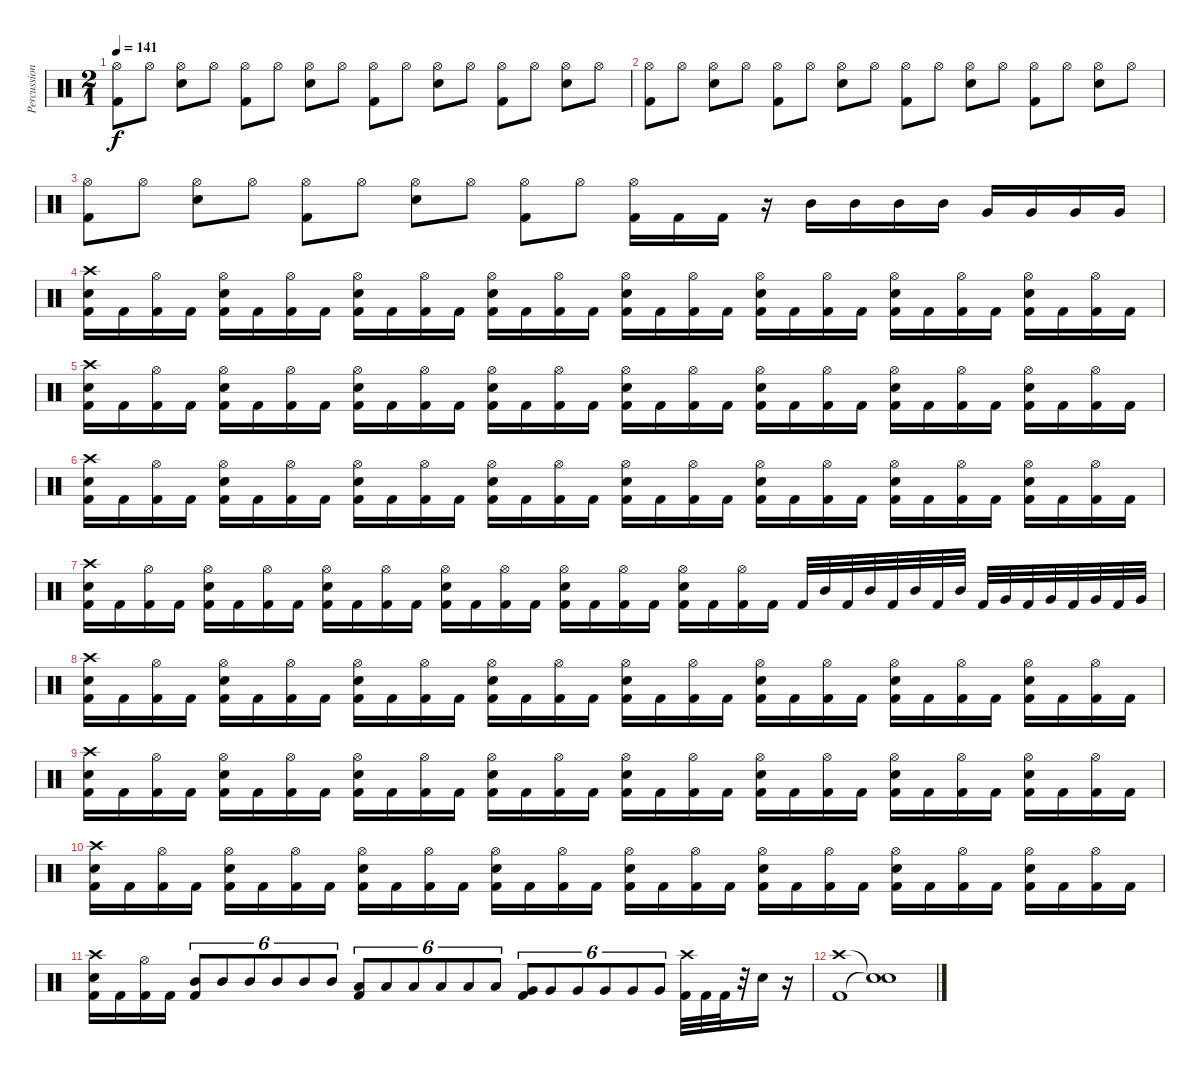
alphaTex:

\track ("Percussion" "Percussion") {instrument percussion}
\staff {score}
\articulation defaults
\ts (2 1)
\tempo 141
\clef neutral
\ks c
("Hi-Hat (open)" "Kick (hit) 2").8{dy f} "Hi-Hat (open)".8 ("Hi-Hat (open)" "Snare (hit) 2").8 "Hi-Hat (open)".8 ("Hi-Hat (open)" "Kick (hit) 2").8 "Hi-Hat (open)".8 ("Hi-Hat (open)" "Snare (hit) 2").8 "Hi-Hat (open)".8 ("Hi-Hat (open)" "Kick (hit) 2").8 "Hi-Hat (open)".8 ("Hi-Hat (open)" "Snare (hit) 2").8 "Hi-Hat (open)".8 ("Hi-Hat (open)" "Kick (hit) 2").8 "Hi-Hat (open)".8 ("Hi-Hat (open)" "Snare (hit) 2").8 "Hi-Hat (open)".8 |
("Hi-Hat (open)" "Kick (hit) 2").8 "Hi-Hat (open)".8 ("Hi-Hat (open)" "Snare (hit) 2").8 "Hi-Hat (open)".8 ("Hi-Hat (open)" "Kick (hit) 2").8 "Hi-Hat (open)".8 ("Hi-Hat (open)" "Snare (hit) 2").8 "Hi-Hat (open)".8 ("Hi-Hat (open)" "Kick (hit) 2").8 "Hi-Hat (open)".8 ("Hi-Hat (open)" "Snare (hit) 2").8 "Hi-Hat (open)".8 ("Hi-Hat (open)" "Kick (hit) 2").8 "Hi-Hat (open)".8 ("Hi-Hat (open)" "Snare (hit) 2").8 "Hi-Hat (open)".8 |
("Hi-Hat (open)" "Kick (hit) 2").8 "Hi-Hat (open)".8 ("Hi-Hat (open)" "Snare (hit) 2").8 "Hi-Hat (open)".8 ("Hi-Hat (open)" "Kick (hit) 2").8 "Hi-Hat (open)".8 ("Hi-Hat (open)" "Snare (hit) 2").8 "Hi-Hat (open)".8 ("Hi-Hat (open)" "Kick (hit) 2").8 "Hi-Hat (open)".8 ("Hi-Hat (open)" "Kick (hit) 2").16 "Kick (hit) 2".16 "Kick (hit) 2".16 r.16 "Mid Tom (hit)".16 "Mid Tom (hit)".16 "Mid Tom (hit)".16 "Mid Tom (hit)".16 "Very Low Tom (hit)".16 "Very Low Tom (hit)".16 "Very Low Tom (hit)".16 "Very Low Tom (hit)".16 |
("Crash high (hit)" "Snare (hit) 2" "Kick (hit) 2").16 "Kick (hit) 2".16 ("Hi-Hat (open)" "Kick (hit) 2").16 "Kick (hit) 2".16 ("Hi-Hat (open)" "Snare (hit) 2" "Kick (hit) 2").16 "Kick (hit) 2".16 ("Hi-Hat (open)" "Kick (hit) 2").16 "Kick (hit) 2".16 ("Hi-Hat (open)" "Snare (hit) 2" "Kick (hit) 2").16 "Kick (hit) 2".16 ("Hi-Hat (open)" "Kick (hit) 2").16 "Kick (hit) 2".16 ("Hi-Hat (open)" "Snare (hit) 2" "Kick (hit) 2").16 "Kick (hit) 2".16 ("Hi-Hat (open)" "Kick (hit) 2").16 "Kick (hit) 2".16 ("Hi-Hat (open)" "Snare (hit) 2" "Kick (hit) 2").16 "Kick (hit) 2".16 ("Hi-Hat (open)" "Kick (hit) 2").16 "Kick (hit) 2".16 ("Hi-Hat (open)" "Snare (hit) 2" "Kick (hit) 2").16 "Kick (hit) 2".16 ("Hi-Hat (open)" "Kick (hit) 2").16 "Kick (hit) 2".16 ("Hi-Hat (open)" "Snare (hit) 2" "Kick (hit) 2").16 "Kick (hit) 2".16 ("Hi-Hat (open)" "Kick (hit) 2").16 "Kick (hit) 2".16 ("Hi-Hat (open)" "Snare (hit) 2" "Kick (hit) 2").16 "Kick (hit) 2".16 ("Hi-Hat (open)" "Kick (hit) 2").16 "Kick (hit) 2".16 |
("Crash high (hit)" "Snare (hit) 2" "Kick (hit) 2").16 "Kick (hit) 2".16 ("Hi-Hat (open)" "Kick (hit) 2").16 "Kick (hit) 2".16 ("Hi-Hat (open)" "Snare (hit) 2" "Kick (hit) 2").16 "Kick (hit) 2".16 ("Hi-Hat (open)" "Kick (hit) 2").16 "Kick (hit) 2".16 ("Hi-Hat (open)" "Snare (hit) 2" "Kick (hit) 2").16 "Kick (hit) 2".16 ("Hi-Hat (open)" "Kick (hit) 2").16 "Kick (hit) 2".16 ("Hi-Hat (open)" "Snare (hit) 2" "Kick (hit) 2").16 "Kick (hit) 2".16 ("Hi-Hat (open)" "Kick (hit) 2").16 "Kick (hit) 2".16 ("Hi-Hat (open)" "Snare (hit) 2" "Kick (hit) 2").16 "Kick (hit) 2".16 ("Hi-Hat (open)" "Kick (hit) 2").16 "Kick (hit) 2".16 ("Hi-Hat (open)" "Snare (hit) 2" "Kick (hit) 2").16 "Kick (hit) 2".16 ("Hi-Hat (open)" "Kick (hit) 2").16 "Kick (hit) 2".16 ("Hi-Hat (open)" "Snare (hit) 2" "Kick (hit) 2").16 "Kick (hit) 2".16 ("Hi-Hat (open)" "Kick (hit) 2").16 "Kick (hit) 2".16 ("Hi-Hat (open)" "Snare (hit) 2" "Kick (hit) 2").16 "Kick (hit) 2".16 ("Hi-Hat (open)" "Kick (hit) 2").16 "Kick (hit) 2".16 |
("Crash high (hit)" "Snare (hit) 2" "Kick (hit) 2").16 "Kick (hit) 2".16 ("Hi-Hat (open)" "Kick (hit) 2").16 "Kick (hit) 2".16 ("Hi-Hat (open)" "Snare (hit) 2" "Kick (hit) 2").16 "Kick (hit) 2".16 ("Hi-Hat (open)" "Kick (hit) 2").16 "Kick (hit) 2".16 ("Hi-Hat (open)" "Snare (hit) 2" "Kick (hit) 2").16 "Kick (hit) 2".16 ("Hi-Hat (open)" "Kick (hit) 2").16 "Kick (hit) 2".16 ("Hi-Hat (open)" "Snare (hit) 2" "Kick (hit) 2").16 "Kick (hit) 2".16 ("Hi-Hat (open)" "Kick (hit) 2").16 "Kick (hit) 2".16 ("Hi-Hat (open)" "Snare (hit) 2" "Kick (hit) 2").16 "Kick (hit) 2".16 ("Hi-Hat (open)" "Kick (hit) 2").16 "Kick (hit) 2".16 ("Hi-Hat (open)" "Snare (hit) 2" "Kick (hit) 2").16 "Kick (hit) 2".16 ("Hi-Hat (open)" "Kick (hit) 2").16 "Kick (hit) 2".16 ("Hi-Hat (open)" "Snare (hit) 2" "Kick (hit) 2").16 "Kick (hit) 2".16 ("Hi-Hat (open)" "Kick (hit) 2").16 "Kick (hit) 2".16 ("Hi-Hat (open)" "Snare (hit) 2" "Kick (hit) 2").16 "Kick (hit) 2".16 ("Hi-Hat (open)" "Kick (hit) 2").16 "Kick (hit) 2".16 |
("Crash high (hit)" "Snare (hit) 2" "Kick (hit) 2").16 "Kick (hit) 2".16 ("Hi-Hat (open)" "Kick (hit) 2").16 "Kick (hit) 2".16 ("Hi-Hat (open)" "Snare (hit) 2" "Kick (hit) 2").16 "Kick (hit) 2".16 ("Hi-Hat (open)" "Kick (hit) 2").16 "Kick (hit) 2".16 ("Hi-Hat (open)" "Snare (hit) 2" "Kick (hit) 2").16 "Kick (hit) 2".16 ("Hi-Hat (open)" "Kick (hit) 2").16 "Kick (hit) 2".16 ("Hi-Hat (open)" "Snare (hit) 2" "Kick (hit) 2").16 "Kick (hit) 2".16 ("Hi-Hat (open)" "Kick (hit) 2").16 "Kick (hit) 2".16 ("Hi-Hat (open)" "Snare (hit) 2" "Kick (hit) 2").16 "Kick (hit) 2".16 ("Hi-Hat (open)" "Kick (hit) 2").16 "Kick (hit) 2".16 ("Hi-Hat (open)" "Snare (hit) 2" "Kick (hit) 2").16 "Kick (hit) 2".16 ("Hi-Hat (open)" "Kick (hit) 2").16 "Kick (hit) 2".16 "Kick (hit) 2".32 "Mid Tom (hit)".32 "Kick (hit) 2".32 "Mid Tom (hit)".32 "Kick (hit) 2".32 "Mid Tom (hit)".32 "Kick (hit) 2".32 "Mid Tom (hit)".32 "Kick (hit) 2".32 "Very Low Tom (hit)".32 "Kick (hit) 2".32 "Very Low Tom (hit)".32 "Kick (hit) 2".32 "Very Low Tom (hit)".32 "Kick (hit) 2".32 "Very Low Tom (hit)".32 |
("Crash high (hit)" "Snare (hit) 2" "Kick (hit) 2").16 "Kick (hit) 2".16 ("Hi-Hat (open)" "Kick (hit) 2").16 "Kick (hit) 2".16 ("Hi-Hat (open)" "Snare (hit) 2" "Kick (hit) 2").16 "Kick (hit) 2".16 ("Hi-Hat (open)" "Kick (hit) 2").16 "Kick (hit) 2".16 ("Hi-Hat (open)" "Snare (hit) 2" "Kick (hit) 2").16 "Kick (hit) 2".16 ("Hi-Hat (open)" "Kick (hit) 2").16 "Kick (hit) 2".16 ("Hi-Hat (open)" "Snare (hit) 2" "Kick (hit) 2").16 "Kick (hit) 2".16 ("Hi-Hat (open)" "Kick (hit) 2").16 "Kick (hit) 2".16 ("Hi-Hat (open)" "Snare (hit) 2" "Kick (hit) 2").16 "Kick (hit) 2".16 ("Hi-Hat (open)" "Kick (hit) 2").16 "Kick (hit) 2".16 ("Hi-Hat (open)" "Snare (hit) 2" "Kick (hit) 2").16 "Kick (hit) 2".16 ("Hi-Hat (open)" "Kick (hit) 2").16 "Kick (hit) 2".16 ("Hi-Hat (open)" "Snare (hit) 2" "Kick (hit) 2").16 "Kick (hit) 2".16 ("Hi-Hat (open)" "Kick (hit) 2").16 "Kick (hit) 2".16 ("Hi-Hat (open)" "Snare (hit) 2" "Kick (hit) 2").16 "Kick (hit) 2".16 ("Hi-Hat (open)" "Kick (hit) 2").16 "Kick (hit) 2".16 |
("Crash high (hit)" "Snare (hit) 2" "Kick (hit) 2").16 "Kick (hit) 2".16 ("Hi-Hat (open)" "Kick (hit) 2").16 "Kick (hit) 2".16 ("Hi-Hat (open)" "Snare (hit) 2" "Kick (hit) 2").16 "Kick (hit) 2".16 ("Hi-Hat (open)" "Kick (hit) 2").16 "Kick (hit) 2".16 ("Hi-Hat (open)" "Snare (hit) 2" "Kick (hit) 2").16 "Kick (hit) 2".16 ("Hi-Hat (open)" "Kick (hit) 2").16 "Kick (hit) 2".16 ("Hi-Hat (open)" "Snare (hit) 2" "Kick (hit) 2").16 "Kick (hit) 2".16 ("Hi-Hat (open)" "Kick (hit) 2").16 "Kick (hit) 2".16 ("Hi-Hat (open)" "Snare (hit) 2" "Kick (hit) 2").16 "Kick (hit) 2".16 ("Hi-Hat (open)" "Kick (hit) 2").16 "Kick (hit) 2".16 ("Hi-Hat (open)" "Snare (hit) 2" "Kick (hit) 2").16 "Kick (hit) 2".16 ("Hi-Hat (open)" "Kick (hit) 2").16 "Kick (hit) 2".16 ("Hi-Hat (open)" "Snare (hit) 2" "Kick (hit) 2").16 "Kick (hit) 2".16 ("Hi-Hat (open)" "Kick (hit) 2").16 "Kick (hit) 2".16 ("Hi-Hat (open)" "Snare (hit) 2" "Kick (hit) 2").16 "Kick (hit) 2".16 ("Hi-Hat (open)" "Kick (hit) 2").16 "Kick (hit) 2".16 |
("Crash high (hit)" "Snare (hit) 2" "Kick (hit) 2").16 "Kick (hit) 2".16 ("Hi-Hat (open)" "Kick (hit) 2").16 "Kick (hit) 2".16 ("Hi-Hat (open)" "Snare (hit) 2" "Kick (hit) 2").16 "Kick (hit) 2".16 ("Hi-Hat (open)" "Kick (hit) 2").16 "Kick (hit) 2".16 ("Hi-Hat (open)" "Snare (hit) 2" "Kick (hit) 2").16 "Kick (hit) 2".16 ("Hi-Hat (open)" "Kick (hit) 2").16 "Kick (hit) 2".16 ("Hi-Hat (open)" "Snare (hit) 2" "Kick (hit) 2").16 "Kick (hit) 2".16 ("Hi-Hat (open)" "Kick (hit) 2").16 "Kick (hit) 2".16 ("Hi-Hat (open)" "Snare (hit) 2" "Kick (hit) 2").16 "Kick (hit) 2".16 ("Hi-Hat (open)" "Kick (hit) 2").16 "Kick (hit) 2".16 ("Hi-Hat (open)" "Snare (hit) 2" "Kick (hit) 2").16 "Kick (hit) 2".16 ("Hi-Hat (open)" "Kick (hit) 2").16 "Kick (hit) 2".16 ("Hi-Hat (open)" "Snare (hit) 2" "Kick (hit) 2").16 "Kick (hit) 2".16 ("Hi-Hat (open)" "Kick (hit) 2").16 "Kick (hit) 2".16 ("Hi-Hat (open)" "Snare (hit) 2" "Kick (hit) 2").16 "Kick (hit) 2".16 ("Hi-Hat (open)" "Kick (hit) 2").16 "Kick (hit) 2".16 |
("Crash high (hit)" "Snare (hit) 2" "Kick (hit) 2").16 "Kick (hit) 2".16 ("Hi-Hat (open)" "Kick (hit) 2").16 "Kick (hit) 2".16 ("Mid Tom (hit)" "Kick (hit) 2").8{tu (6 4)} "Mid Tom (hit)".8{tu (6 4)} "Mid Tom (hit)".8{tu (6 4)} "Mid Tom (hit)".8{tu (6 4)} "Mid Tom (hit)".8{tu (6 4)} "Mid Tom (hit)".8{tu (6 4)} ("Low Tom (hit)" "Kick (hit) 2").8{tu (6 4)} "Low Tom (hit)".8{tu (6 4)} "Low Tom (hit)".8{tu (6 4)} "Low Tom (hit)".8{tu (6 4)} "Low Tom (hit)".8{tu (6 4)} "Low Tom (hit)".8{tu (6 4)} ("Very Low Tom (hit)" "Kick (hit) 2").8{tu (6 4)} "Very Low Tom (hit)".8{tu (6 4)} "Very Low Tom (hit)".8{tu (6 4)} "Very Low Tom (hit)".8{tu (6 4)} "Very Low Tom (hit)".8{tu (6 4)} "Very Low Tom (hit)".8{tu (6 4)} ("Crash high (hit)" "Kick (hit) 2").32 "Kick (hit) 2".32 "Kick (hit) 2".32 r.32 "Snare (hit) 2".16 r.16 |
("Crash high (hit)" "Kick (hit) 2").1 ("Snare (hit)"{t} "Snare (hit)"{t}).1
